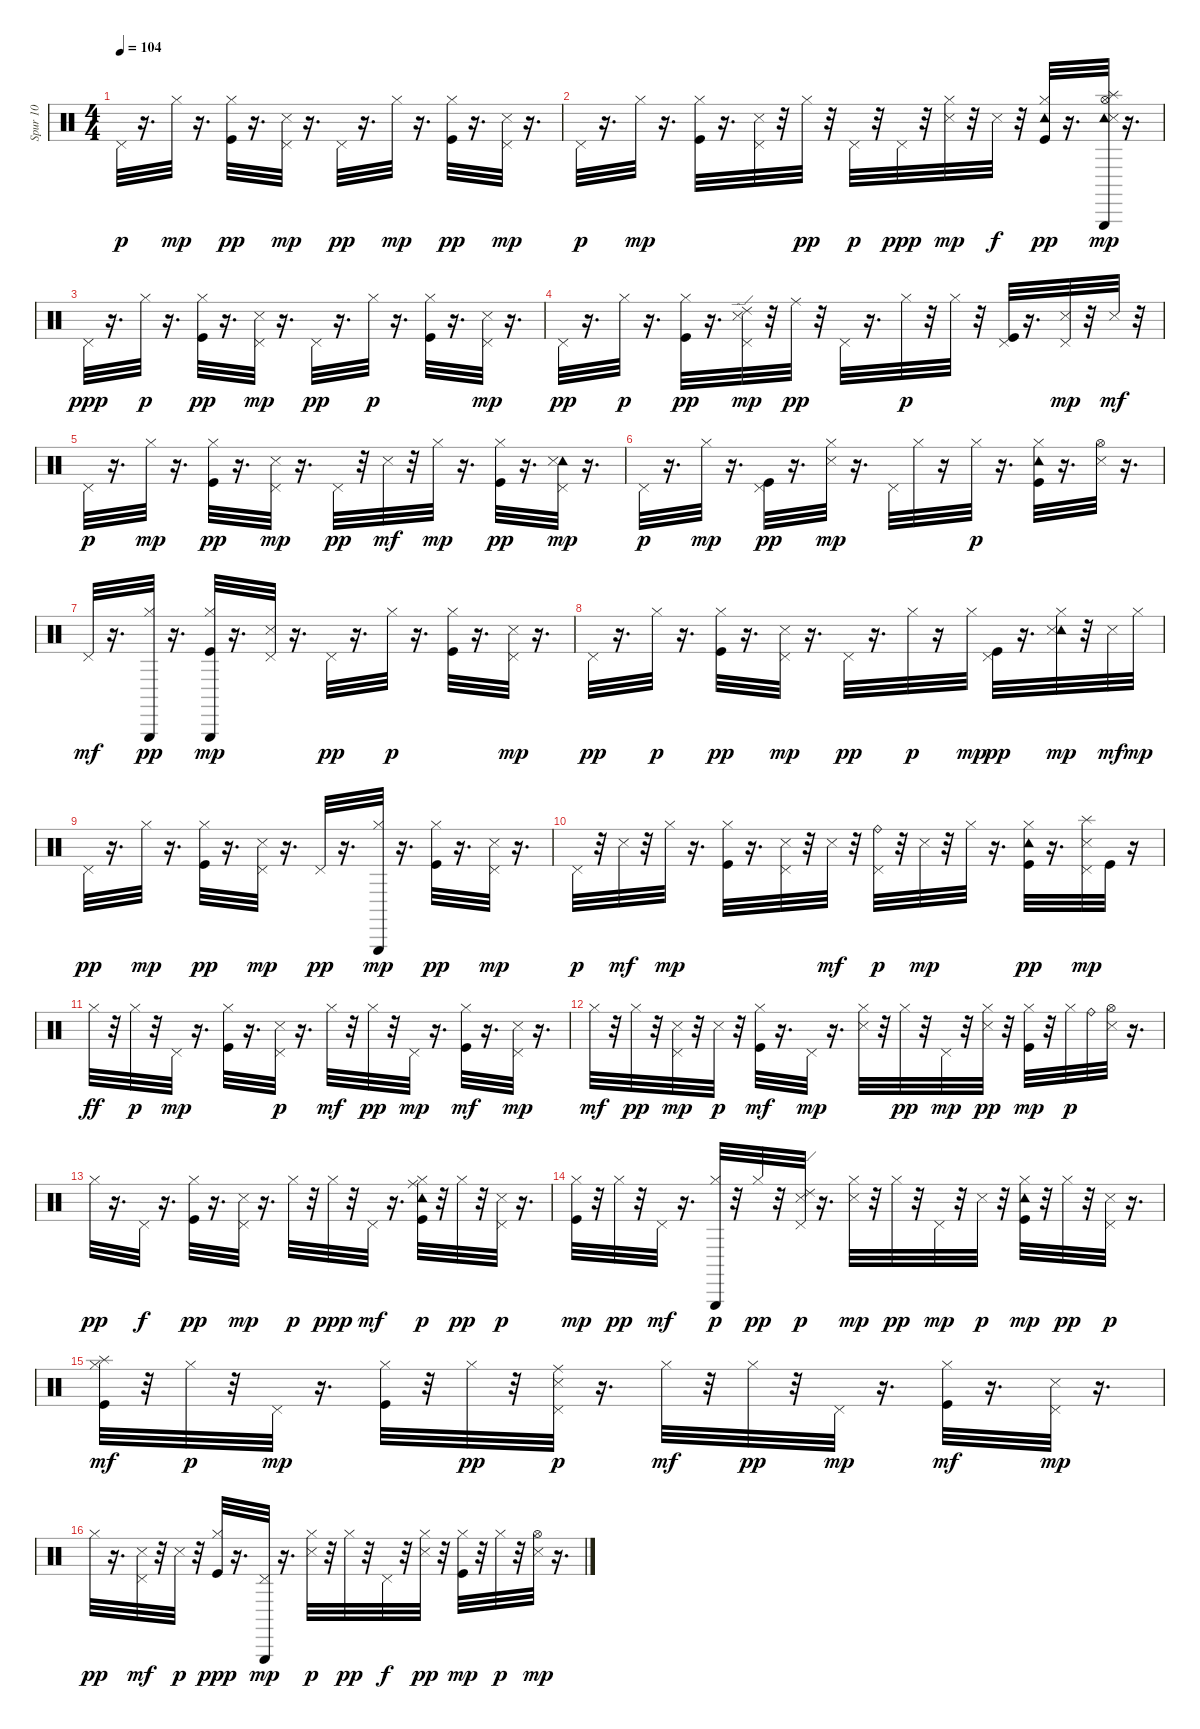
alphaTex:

\track ("Spur 10" "Spur 10") {instrument percussion}
\staff {score}
\articulation defaults
\ts (4 4)
\tempo 104
\clef neutral
\ks c "Pedal Hi-Hat (hit)".32{dy p}
r.16{d} "Hi-Hat (closed)".32{dy mp} r.16{d} ("Kick (hit)" "Hi-Hat (closed)").32{dy pp} r.16{d} ("Pedal Hi-Hat (hit)" "Snare (side stick) 3").32{dy mp} r.16{d} "Pedal Hi-Hat (hit)".32{dy pp} r.16{d} "Hi-Hat (closed)".32{dy mp} r.16{d} ("Kick (hit)" "Hi-Hat (closed)").32{dy pp} r.16{d} ("Pedal Hi-Hat (hit)" "Snare (side stick) 3").32{dy mp} r.16{d} |
"Pedal Hi-Hat (hit)".32{dy p} r.16{d} "Hi-Hat (closed)".32{dy mp} r.16{d} ("Kick (hit)" "Hi-Hat (closed)").32 r.16{d} ("Pedal Hi-Hat (hit)" "Snare (side stick) 3").32 r.32 "Hi-Hat (closed)".32{dy pp} r.32 "Pedal Hi-Hat (hit)".32{dy p} r.32 "Pedal Hi-Hat (hit)".32{dy ppp} r.32 ("Snare (side stick) 3" "Hi-Hat (closed)").32{dy mp} r.32 "Snare (side stick) 3".32{dy f} r.32 ("Tambourine (hit)" "Kick (hit)" "Hi-Hat (closed)").32{dy pp} r.16{d} ("Tambourine (hit)" "Splash (hit)" "Hi-Hat (open)" "Snare (side stick) 3" "Triangle (hit)").32{dy mp} r.16{d} |
"Pedal Hi-Hat (hit)".32{dy ppp} r.16{d} "Hi-Hat (closed)".32{dy p} r.16{d} ("Kick (hit)" "Hi-Hat (closed)").32{dy pp} r.16{d} ("Pedal Hi-Hat (hit)" "Snare (side stick) 3").32{dy mp} r.16{d} "Pedal Hi-Hat (hit)".32{dy pp} r.16{d} "Hi-Hat (closed)".32{dy p} r.16{d} ("Kick (hit)" "Hi-Hat (closed)").32 r.16{d} ("Pedal Hi-Hat (hit)" "Snare (side stick) 3").32{dy mp} r.16{d} |
"Pedal Hi-Hat (hit)".32{dy pp} r.16{d} "Hi-Hat (closed)".32{dy p} r.16{d} ("Kick (hit)" "Hi-Hat (closed)").32{dy pp} r.16{d} ("Pedal Hi-Hat (hit)" "Ride (edge) 2" "Snare (side stick) 3").32{dy mp} r.32 "Ride (middle)".32{dy pp} r.32 "Pedal Hi-Hat (hit)".32 r.16{d} "Hi-Hat (closed)".32{dy p} r.32 "Hi-Hat (closed)".32 r.32 ("Kick (hit)" "Pedal Hi-Hat (hit)").32 r.16{d} ("Pedal Hi-Hat (hit)" "Snare (side stick) 3").32{dy mp} r.32 "Snare (side stick) 3".32{dy mf} r.32 |
"Pedal Hi-Hat (hit)".32{dy p} r.16{d} "Hi-Hat (closed)".32{dy mp} r.16{d} ("Kick (hit)" "Hi-Hat (closed)").32{dy pp} r.16{d} ("Pedal Hi-Hat (hit)" "Snare (side stick) 3").32{dy mp} r.16{d} "Pedal Hi-Hat (hit)".32{dy pp} r.32 "Snare (side stick) 3".32{dy mf} r.32 "Hi-Hat (closed)".32{dy mp} r.16{d} ("Kick (hit)" "Hi-Hat (closed)").32{dy pp} r.16{d} ("Tambourine (hit)" "Pedal Hi-Hat (hit)" "Snare (side stick) 3").32{dy mp} r.16{d} |
"Pedal Hi-Hat (hit)".32{dy p} r.16{d} "Hi-Hat (closed)".32{dy mp} r.16{d} ("Kick (hit)" "Pedal Hi-Hat (hit)").32{dy pp} r.16{d} ("Hi-Hat (closed)" "Snare (side stick) 3").32{dy mp} r.16{d} "Pedal Hi-Hat (hit)".32 "Hi-Hat (closed)".32 r.16 "Hi-Hat (closed)".32{dy p} r.16{d} ("Kick (hit)" "Hi-Hat (closed)" "Tambourine (hit)").32 r.16{d} ("Hi-Hat (open)" "Snare (side stick) 3").32 r.16{d} |
"Pedal Hi-Hat (hit)".32{dy mf} r.16{d} ("Hi-Hat (closed)" "Triangle (hit)").32{dy pp} r.16{d} ("Kick (hit)" "Hi-Hat (closed)" "Triangle (hit)").32{dy mp} r.16{d} ("Pedal Hi-Hat (hit)" "Snare (side stick) 3").32 r.16{d} "Pedal Hi-Hat (hit)".32{dy pp} r.16{d} "Hi-Hat (closed)".32{dy p} r.16{d} ("Kick (hit)" "Hi-Hat (closed)").32 r.16{d} ("Pedal Hi-Hat (hit)" "Snare (side stick) 3").32{dy mp} r.16{d} |
"Pedal Hi-Hat (hit)".32{dy pp} r.16{d} "Hi-Hat (closed)".32{dy p} r.16{d} ("Kick (hit)" "Hi-Hat (closed)").32{dy pp} r.16{d} ("Pedal Hi-Hat (hit)" "Snare (side stick) 3").32{dy mp} r.16{d} "Pedal Hi-Hat (hit)".32{dy pp} r.16{d} "Hi-Hat (closed)".32{dy p} r.16 "Hi-Hat (closed)".32{dy mp} ("Kick (hit)" "Pedal Hi-Hat (hit)").32{dy pp} r.16{d} ("Tambourine (hit)" "Snare (side stick) 3" "Hi-Hat (closed)").32{dy mp} r.32 "Snare (side stick) 3".32{dy mf} "Hi-Hat (closed)".32{dy mp} |
"Pedal Hi-Hat (hit)".32{dy pp} r.16{d} "Hi-Hat (closed)".32{dy mp} r.16{d} ("Kick (hit)" "Hi-Hat (closed)").32{dy pp} r.16{d} ("Pedal Hi-Hat (hit)" "Snare (side stick) 3").32{dy mp} r.16{d} "Pedal Hi-Hat (hit)".32{dy pp} r.16{d} ("Triangle (hit)" "Hi-Hat (closed)").32{dy mp} r.16{d} ("Kick (hit)" "Hi-Hat (closed)").32{dy pp} r.16{d} ("Pedal Hi-Hat (hit)" "Snare (side stick) 3").32{dy mp} r.16{d} |
"Pedal Hi-Hat (hit)".32{dy p} r.32 "Snare (side stick) 3".32{dy mf} r.32 "Hi-Hat (closed)".32{dy mp} r.16{d} ("Kick (hit)" "Hi-Hat (closed)").32 r.16{d} ("Pedal Hi-Hat (hit)" "Snare (side stick) 3").32 r.32 "Snare (side stick) 3".32{dy mf} r.32 ("Pedal Hi-Hat (hit)" "Ride (bell)").32{dy p} r.32 "Snare (side stick) 3".32{dy mp} r.32 "Hi-Hat (closed)".32 r.16{d} ("Kick (hit)" "Hi-Hat (closed)" "Tambourine (hit)").32{dy pp} r.16{d} ("Splash (hit)" "Pedal Hi-Hat (hit)" "Snare (side stick) 3").32{dy mp} "Kick (hit)".32 r.16 |
"Hi-Hat (closed)".32{dy ff} r.32 "Hi-Hat (closed)".32{dy p} r.32 "Pedal Hi-Hat (hit)".32{dy mp} r.16{d} ("Kick (hit)" "Hi-Hat (closed)").32 r.16{d} ("Snare (side stick) 3" "Pedal Hi-Hat (hit)").32{dy p} r.16{d} "Hi-Hat (closed)".32{dy mf} r.32 "Hi-Hat (closed)".32{dy pp} r.32 "Pedal Hi-Hat (hit)".32{dy mp} r.16{d} ("Kick (hit)" "Hi-Hat (closed)").32{dy mf} r.16{d} ("Snare (side stick) 3" "Pedal Hi-Hat (hit)").32{dy mp} r.16{d} |
"Hi-Hat (closed)".32{dy mf} r.32 "Hi-Hat (closed)".32{dy pp} r.32 ("Snare (side stick) 3" "Pedal Hi-Hat (hit)").32{dy mp} r.32 "Snare (side stick) 3".32{dy p} r.32 ("Kick (hit)" "Hi-Hat (closed)").32{dy mf} r.16{d} "Pedal Hi-Hat (hit)".32{dy mp} r.16{d} ("Snare (side stick) 3" "Hi-Hat (closed)").32 r.32 "Hi-Hat (closed)".32{dy pp} r.32 "Pedal Hi-Hat (hit)".32{dy mp} r.32 ("Snare (side stick) 3" "Hi-Hat (closed)").32{dy pp} r.32 ("Kick (hit)" "Hi-Hat (closed)").32{dy mp} r.32 "Hi-Hat (closed)".32{dy p} "Ride (bell)".32 ("Snare (side stick) 3" "Hi-Hat (open)").32 r.16{d} |
"Hi-Hat (closed)".32{dy pp} r.16{d} "Pedal Hi-Hat (hit)".32{dy f} r.16{d} ("Kick (hit)" "Hi-Hat (closed)").32{dy pp} r.16{d} ("Snare (side stick) 3" "Pedal Hi-Hat (hit)").32{dy mp} r.16{d} "Hi-Hat (closed)".32{dy p} r.32 "Hi-Hat (closed)".32{dy ppp} r.32 "Pedal Hi-Hat (hit)".32{dy mf} r.16{d} ("Ride (middle)" "Tambourine (hit)" "Kick (hit)" "Hi-Hat (closed)").32{dy p} r.32 "Hi-Hat (closed)".32{dy pp} r.32 ("Pedal Hi-Hat (hit)" "Snare (side stick) 3").32{dy p} r.16{d} |
("Kick (hit)" "Hi-Hat (closed)").32{dy mp} r.32 "Hi-Hat (closed)".32{dy pp} r.32 "Pedal Hi-Hat (hit)".32{dy mf} r.16{d} ("Triangle (hit)" "Hi-Hat (closed)").32{dy p} r.32 "Hi-Hat (closed)".32{dy pp} r.32 ("Snare (side stick) 3" "Pedal Hi-Hat (hit)" "Ride (edge) 2").32{dy p} r.16{d} ("Snare (side stick) 3" "Hi-Hat (closed)").32{dy mp} r.32 "Hi-Hat (closed)".32{dy pp} r.32 "Pedal Hi-Hat (hit)".32{dy mp} r.32 "Snare (side stick) 3".32{dy p} r.32 ("Tambourine (hit)" "Kick (hit)" "Hi-Hat (closed)").32{dy mp} r.32 "Hi-Hat (closed)".32{dy pp} r.32 ("Snare (side stick) 3" "Pedal Hi-Hat (hit)").32{dy p} r.16{d} |
("Hi-Hat (closed)" "Kick (hit)" "Splash (hit)").32{dy mf} r.32 "Hi-Hat (closed)".32{dy p} r.32 "Pedal Hi-Hat (hit)".32{dy mp} r.16{d} ("Kick (hit)" "Hi-Hat (closed)").32 r.32 "Hi-Hat (closed)".32{dy pp} r.32 ("Ride (middle)" "Snare (side stick) 3" "Pedal Hi-Hat (hit)").32{dy p} r.16{d} "Hi-Hat (closed)".32{dy mf} r.32 "Hi-Hat (closed)".32{dy pp} r.32 "Pedal Hi-Hat (hit)".32{dy mp} r.16{d} ("Kick (hit)" "Hi-Hat (closed)").32{dy mf} r.16{d} ("Snare (side stick) 3" "Pedal Hi-Hat (hit)").32{dy mp} r.16{d} |
"Hi-Hat (closed)".32{dy pp} r.16{d} ("Snare (side stick) 3" "Pedal Hi-Hat (hit)").32{dy mf} r.32 "Snare (side stick) 3".32{dy p} r.32 ("Kick (hit)" "Hi-Hat (closed)").32{dy ppp} r.16{d} ("Pedal Hi-Hat (hit)" "Triangle (hit)").32{dy mp} r.16{d} ("Snare (side stick) 3" "Hi-Hat (closed)").32{dy p} r.32 "Hi-Hat (closed)".32{dy pp} r.32 "Pedal Hi-Hat (hit)".32{dy f} r.32 ("Snare (side stick) 3" "Hi-Hat (closed)").32{dy pp} r.32 ("Kick (hit)" "Hi-Hat (closed)").32{dy mp} r.32 "Hi-Hat (closed)".32{dy p} r.32 ("Snare (side stick) 3" "Hi-Hat (open)").32{dy mp} r.16{d}
